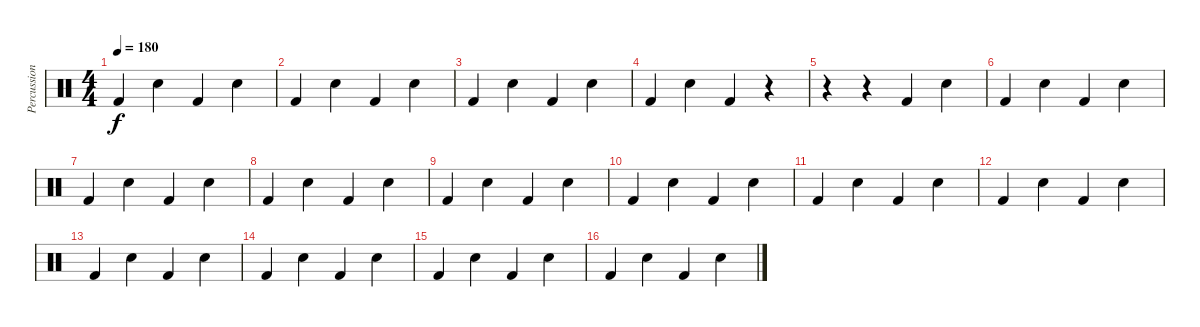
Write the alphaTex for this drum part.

\track ("Percussion" "Percussion") {instrument percussion}
\staff {score}
\articulation defaults
\ts (4 4)
\tempo 180
\clef neutral
\ks c "Kick (hit) 2".4{dy f} "Snare (hit) 2".4 "Kick (hit) 2".4 "Snare (hit) 2".4
|
"Kick (hit) 2".4 "Snare (hit) 2".4 "Kick (hit) 2".4 "Snare (hit) 2".4 |
"Kick (hit) 2".4 "Snare (hit) 2".4 "Kick (hit) 2".4 "Snare (hit) 2".4 |
"Kick (hit) 2".4 "Snare (hit) 2".4 "Kick (hit) 2".4 r.4 |
r.4 r.4 "Kick (hit) 2".4 "Snare (hit) 2".4 |
"Kick (hit) 2".4 "Snare (hit) 2".4 "Kick (hit) 2".4 "Snare (hit) 2".4 |
"Kick (hit) 2".4 "Snare (hit) 2".4 "Kick (hit) 2".4 "Snare (hit) 2".4 |
"Kick (hit) 2".4 "Snare (hit) 2".4 "Kick (hit) 2".4 "Snare (hit) 2".4 |
"Kick (hit) 2".4 "Snare (hit) 2".4 "Kick (hit) 2".4 "Snare (hit) 2".4 |
"Kick (hit) 2".4 "Snare (hit) 2".4 "Kick (hit) 2".4 "Snare (hit) 2".4 |
"Kick (hit) 2".4 "Snare (hit) 2".4 "Kick (hit) 2".4 "Snare (hit) 2".4 |
"Kick (hit) 2".4 "Snare (hit) 2".4 "Kick (hit) 2".4 "Snare (hit) 2".4 |
"Kick (hit) 2".4 "Snare (hit) 2".4 "Kick (hit) 2".4 "Snare (hit) 2".4 |
"Kick (hit) 2".4 "Snare (hit) 2".4 "Kick (hit) 2".4 "Snare (hit) 2".4 |
"Kick (hit) 2".4 "Snare (hit) 2".4 "Kick (hit) 2".4 "Snare (hit) 2".4 |
"Kick (hit) 2".4 "Snare (hit) 2".4 "Kick (hit) 2".4 "Snare (hit) 2".4
